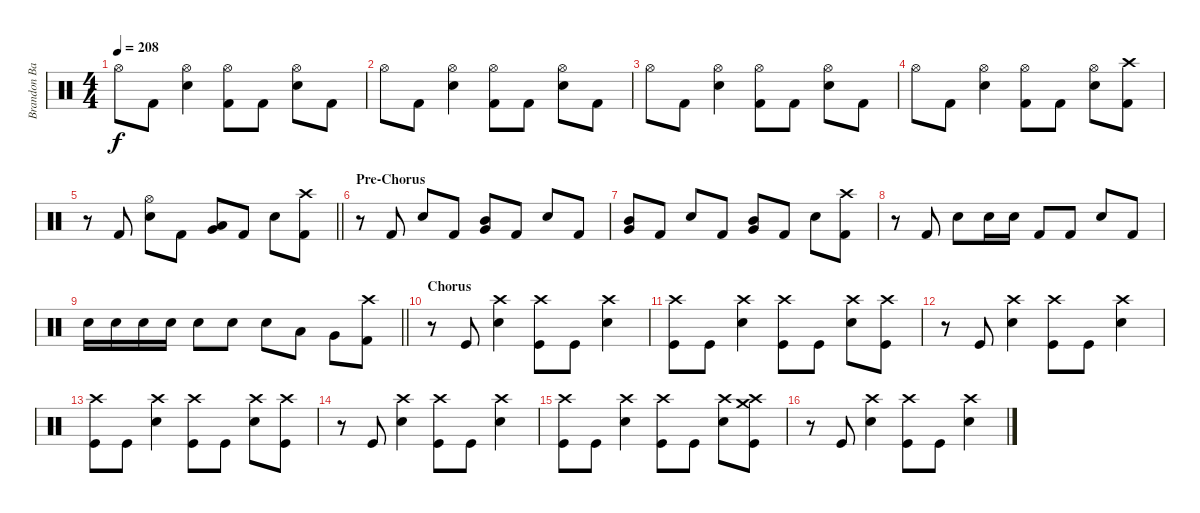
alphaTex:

\track ("Brandon Barnes - Drums" "Brandon Ba") {instrument percussion}
\staff {score}
\articulation defaults
\ts (4 4)
\tempo 208
\clef neutral
\ks c "Hi-Hat (open)".8{dy f} "Kick (hit) 2".8
("Snare (hit) 2" "Hi-Hat (open)").4 ("Kick (hit) 2" "Hi-Hat (open)").8 "Kick (hit) 2".8 ("Snare (hit) 2" "Hi-Hat (open)").8 "Kick (hit) 2".8 |
"Hi-Hat (open)".8 "Kick (hit) 2".8 ("Snare (hit) 2" "Hi-Hat (open)").4 ("Kick (hit) 2" "Hi-Hat (open)").8 "Kick (hit) 2".8 ("Snare (hit) 2" "Hi-Hat (open)").8 "Kick (hit) 2".8 |
"Hi-Hat (open)".8 "Kick (hit) 2".8 ("Snare (hit) 2" "Hi-Hat (open)").4 ("Kick (hit) 2" "Hi-Hat (open)").8 "Kick (hit) 2".8 ("Snare (hit) 2" "Hi-Hat (open)").8 "Kick (hit) 2".8 |
"Hi-Hat (open)".8 "Kick (hit) 2".8 ("Snare (hit) 2" "Hi-Hat (open)").4 ("Kick (hit) 2" "Hi-Hat (open)").8 "Kick (hit) 2".8 ("Snare (hit) 2" "Hi-Hat (open)").8 ("Kick (hit) 2" "Crash high (hit)").8 |
\barLineRight lightlight
r.8 "Kick (hit) 2".8 ("Snare (hit) 2" "Hi-Hat (open)").8 "Kick (hit) 2".8 ("Low Tom (hit)" "Very Low Tom (hit)").8 "Kick (hit) 2".8 "Snare (hit) 2".8 ("Crash high (hit)" "Kick (hit) 2").8 |
\section ("" "Pre-Chorus")
r.8 "Kick (hit) 2".8 "Snare (hit) 2".8 "Kick (hit) 2".8 ("Very Low Tom (hit)" "Mid Tom (hit)").8 "Kick (hit) 2".8 "Snare (hit) 2".8 "Kick (hit) 2".8 |
("Very Low Tom (hit)" "Mid Tom (hit)").8 "Kick (hit) 2".8 "Snare (hit) 2".8 "Kick (hit) 2".8 ("Very Low Tom (hit)" "Mid Tom (hit)").8 "Kick (hit) 2".8 "Snare (hit) 2".8 ("Kick (hit) 2" "Crash high (hit)").8 |
r.8 "Kick (hit) 2".8 "Snare (hit) 2".8 "Snare (hit) 2".16 "Snare (hit) 2".16 "Kick (hit) 2".8 "Kick (hit) 2".8 "Snare (hit) 2".8 "Kick (hit) 2".8 |
\barLineRight lightlight "Snare (hit) 2".16 "Snare (hit) 2".16 "Snare (hit) 2".16 "Snare (hit) 2".16 "Snare (hit) 2".8 "Snare (hit) 2".8 "Snare (hit) 2".8 "Low Tom (hit)".8 "Very Low Tom (hit)".8
("Crash high (hit)" "Kick (hit) 2").8 |
\section ("" "Chorus")
r.8 "Kick (hit)".8 ("Snare (hit) 2" "Crash high (hit)").4 ("Kick (hit)" "Crash high (hit)").8 "Kick (hit)".8 ("Snare (hit) 2" "Crash high (hit)").4 |
("Kick (hit)" "Crash high (hit)").8 "Kick (hit)".8 ("Snare (hit) 2" "Crash high (hit)").4 ("Kick (hit)" "Crash high (hit)").8 "Kick (hit)".8 ("Snare (hit) 2" "Crash high (hit)").8 ("Kick (hit)" "Crash high (hit)").8 |
r.8 "Kick (hit)".8 ("Snare (hit) 2" "Crash high (hit)").4 ("Kick (hit)" "Crash high (hit)").8 "Kick (hit)".8 ("Snare (hit) 2" "Crash high (hit)").4 |
("Kick (hit)" "Crash high (hit)").8 "Kick (hit)".8 ("Snare (hit) 2" "Crash high (hit)").4 ("Kick (hit)" "Crash high (hit)").8 "Kick (hit)".8 ("Snare (hit) 2" "Crash high (hit)").8 ("Kick (hit)" "Crash high (hit)").8 |
r.8 "Kick (hit)".8 ("Snare (hit) 2" "Crash high (hit)").4 ("Kick (hit)" "Crash high (hit)").8 "Kick (hit)".8 ("Snare (hit) 2" "Crash high (hit)").4 |
("Kick (hit)" "Crash high (hit)").8 "Kick (hit)".8 ("Snare (hit) 2" "Crash high (hit)").4 ("Kick (hit)" "Crash high (hit)").8 "Kick (hit)".8 ("Snare (hit) 2" "Crash high (hit)").8 ("Kick (hit)" "Crash high (hit)" "Crash medium (hit)").8 |
r.8 "Kick (hit)".8 ("Snare (hit) 2" "Crash high (hit)").4 ("Kick (hit)" "Crash high (hit)").8 "Kick (hit)".8 ("Snare (hit) 2" "Crash high (hit)").4
